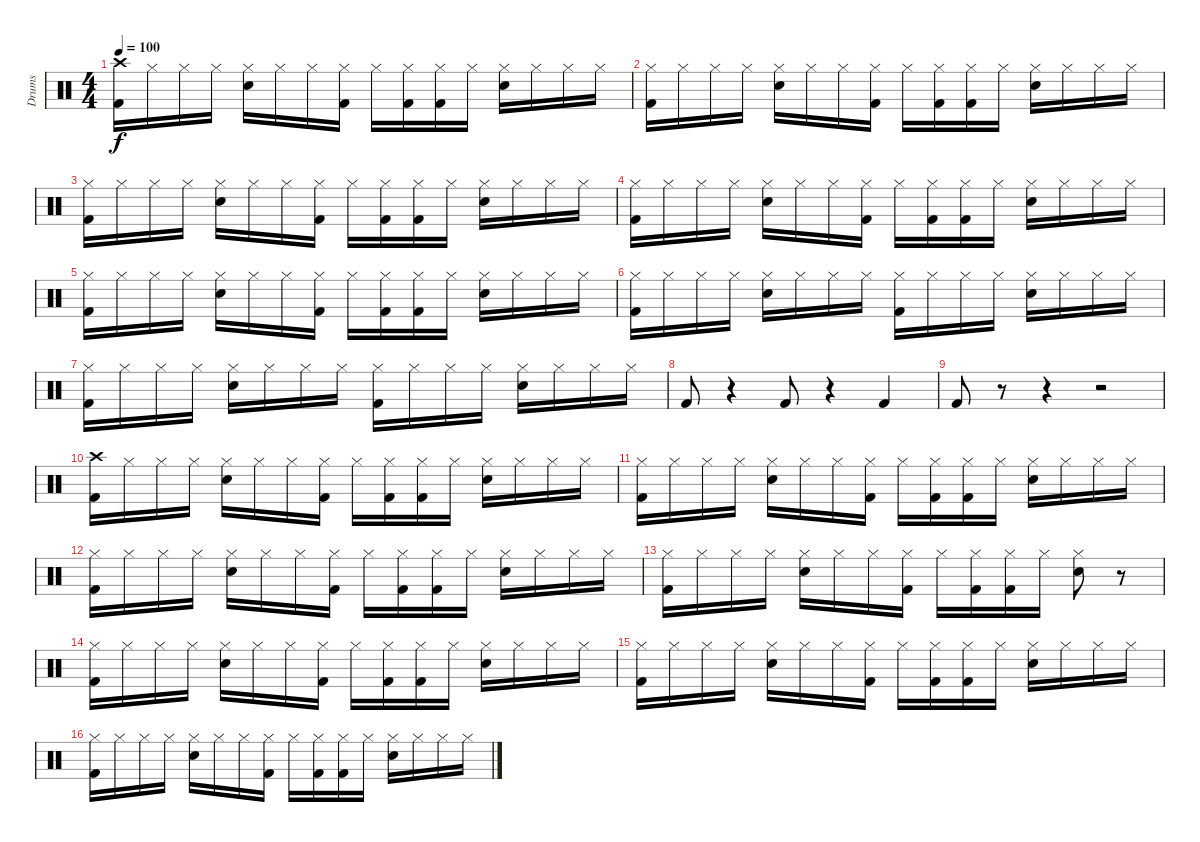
\track ("Drums" "Drums") {instrument percussion}
\staff {score}
\articulation defaults
\ts (4 4)
\tempo 100
\clef neutral
\ks c
("Crash high (hit)" "Kick (hit) 2").16{dy f} "Hi-Hat (closed)".16 "Hi-Hat (closed)".16 "Hi-Hat (closed)".16 ("Hi-Hat (closed)" "Electric Snare (hit)").16 "Hi-Hat (closed)".16 "Hi-Hat (closed)".16 ("Hi-Hat (closed)" "Kick (hit) 2").16 "Hi-Hat (closed)".16 ("Hi-Hat (closed)" "Kick (hit) 2").16 ("Hi-Hat (closed)" "Kick (hit) 2").16 "Hi-Hat (closed)".16 ("Hi-Hat (closed)" "Electric Snare (hit)").16 "Hi-Hat (closed)".16 "Hi-Hat (closed)".16 "Hi-Hat (closed)".16 |
("Hi-Hat (closed)" "Kick (hit) 2").16 "Hi-Hat (closed)".16 "Hi-Hat (closed)".16 "Hi-Hat (closed)".16 ("Hi-Hat (closed)" "Electric Snare (hit)").16 "Hi-Hat (closed)".16 "Hi-Hat (closed)".16 ("Hi-Hat (closed)" "Kick (hit) 2").16 "Hi-Hat (closed)".16 ("Hi-Hat (closed)" "Kick (hit) 2").16 ("Hi-Hat (closed)" "Kick (hit) 2").16 "Hi-Hat (closed)".16 ("Hi-Hat (closed)" "Electric Snare (hit)").16 "Hi-Hat (closed)".16 "Hi-Hat (closed)".16 "Hi-Hat (closed)".16 |
("Hi-Hat (closed)" "Kick (hit) 2").16 "Hi-Hat (closed)".16 "Hi-Hat (closed)".16 "Hi-Hat (closed)".16 ("Hi-Hat (closed)" "Electric Snare (hit)").16 "Hi-Hat (closed)".16 "Hi-Hat (closed)".16 ("Hi-Hat (closed)" "Kick (hit) 2").16 "Hi-Hat (closed)".16 ("Hi-Hat (closed)" "Kick (hit) 2").16 ("Hi-Hat (closed)" "Kick (hit) 2").16 "Hi-Hat (closed)".16 ("Hi-Hat (closed)" "Electric Snare (hit)").16 "Hi-Hat (closed)".16 "Hi-Hat (closed)".16 "Hi-Hat (closed)".16 |
("Hi-Hat (closed)" "Kick (hit) 2").16 "Hi-Hat (closed)".16 "Hi-Hat (closed)".16 "Hi-Hat (closed)".16 ("Hi-Hat (closed)" "Electric Snare (hit)").16 "Hi-Hat (closed)".16 "Hi-Hat (closed)".16 ("Hi-Hat (closed)" "Kick (hit) 2").16 "Hi-Hat (closed)".16 ("Hi-Hat (closed)" "Kick (hit) 2").16 ("Hi-Hat (closed)" "Kick (hit) 2").16 "Hi-Hat (closed)".16 ("Hi-Hat (closed)" "Electric Snare (hit)").16 "Hi-Hat (closed)".16 "Hi-Hat (closed)".16 "Hi-Hat (closed)".16 |
("Hi-Hat (closed)" "Kick (hit) 2").16 "Hi-Hat (closed)".16 "Hi-Hat (closed)".16 "Hi-Hat (closed)".16 ("Hi-Hat (closed)" "Electric Snare (hit)").16 "Hi-Hat (closed)".16 "Hi-Hat (closed)".16 ("Hi-Hat (closed)" "Kick (hit) 2").16 "Hi-Hat (closed)".16 ("Hi-Hat (closed)" "Kick (hit) 2").16 ("Hi-Hat (closed)" "Kick (hit) 2").16 "Hi-Hat (closed)".16 ("Hi-Hat (closed)" "Electric Snare (hit)").16 "Hi-Hat (closed)".16 "Hi-Hat (closed)".16 "Hi-Hat (closed)".16 |
("Hi-Hat (closed)" "Kick (hit) 2").16 "Hi-Hat (closed)".16 "Hi-Hat (closed)".16 "Hi-Hat (closed)".16 ("Hi-Hat (closed)" "Electric Snare (hit)").16 "Hi-Hat (closed)".16 "Hi-Hat (closed)".16 "Hi-Hat (closed)".16 ("Kick (hit) 2" "Hi-Hat (closed)").16 "Hi-Hat (closed)".16 "Hi-Hat (closed)".16 "Hi-Hat (closed)".16 ("Hi-Hat (closed)" "Electric Snare (hit)").16 "Hi-Hat (closed)".16 "Hi-Hat (closed)".16 "Hi-Hat (closed)".16 |
("Hi-Hat (closed)" "Kick (hit) 2").16 "Hi-Hat (closed)".16 "Hi-Hat (closed)".16 "Hi-Hat (closed)".16 ("Hi-Hat (closed)" "Electric Snare (hit)").16 "Hi-Hat (closed)".16 "Hi-Hat (closed)".16 "Hi-Hat (closed)".16 ("Kick (hit) 2" "Hi-Hat (closed)").16 "Hi-Hat (closed)".16 "Hi-Hat (closed)".16 "Hi-Hat (closed)".16 ("Hi-Hat (closed)" "Electric Snare (hit)").16 "Hi-Hat (closed)".16 "Hi-Hat (closed)".16 "Hi-Hat (closed)".16 |
"Kick (hit) 2".8 r.4 "Kick (hit) 2".8 r.4 "Kick (hit) 2".4 |
"Kick (hit) 2".8 r.8 r.4 r.2 |
("Crash high (hit)" "Kick (hit) 2").16 "Hi-Hat (closed)".16 "Hi-Hat (closed)".16 "Hi-Hat (closed)".16 ("Hi-Hat (closed)" "Electric Snare (hit)").16 "Hi-Hat (closed)".16 "Hi-Hat (closed)".16 ("Hi-Hat (closed)" "Kick (hit) 2").16 "Hi-Hat (closed)".16 ("Hi-Hat (closed)" "Kick (hit) 2").16 ("Hi-Hat (closed)" "Kick (hit) 2").16 "Hi-Hat (closed)".16 ("Hi-Hat (closed)" "Electric Snare (hit)").16 "Hi-Hat (closed)".16 "Hi-Hat (closed)".16 "Hi-Hat (closed)".16 |
("Hi-Hat (closed)" "Kick (hit) 2").16 "Hi-Hat (closed)".16 "Hi-Hat (closed)".16 "Hi-Hat (closed)".16 ("Hi-Hat (closed)" "Electric Snare (hit)").16 "Hi-Hat (closed)".16 "Hi-Hat (closed)".16 ("Hi-Hat (closed)" "Kick (hit) 2").16 "Hi-Hat (closed)".16 ("Hi-Hat (closed)" "Kick (hit) 2").16 ("Hi-Hat (closed)" "Kick (hit) 2").16 "Hi-Hat (closed)".16 ("Hi-Hat (closed)" "Electric Snare (hit)").16 "Hi-Hat (closed)".16 "Hi-Hat (closed)".16 "Hi-Hat (closed)".16 |
("Hi-Hat (closed)" "Kick (hit) 2").16 "Hi-Hat (closed)".16 "Hi-Hat (closed)".16 "Hi-Hat (closed)".16 ("Hi-Hat (closed)" "Electric Snare (hit)").16 "Hi-Hat (closed)".16 "Hi-Hat (closed)".16 ("Hi-Hat (closed)" "Kick (hit) 2").16 "Hi-Hat (closed)".16 ("Hi-Hat (closed)" "Kick (hit) 2").16 ("Hi-Hat (closed)" "Kick (hit) 2").16 "Hi-Hat (closed)".16 ("Hi-Hat (closed)" "Electric Snare (hit)").16 "Hi-Hat (closed)".16 "Hi-Hat (closed)".16 "Hi-Hat (closed)".16 |
("Hi-Hat (closed)" "Kick (hit) 2").16 "Hi-Hat (closed)".16 "Hi-Hat (closed)".16 "Hi-Hat (closed)".16 ("Hi-Hat (closed)" "Electric Snare (hit)").16 "Hi-Hat (closed)".16 "Hi-Hat (closed)".16 ("Hi-Hat (closed)" "Kick (hit) 2").16 "Hi-Hat (closed)".16 ("Hi-Hat (closed)" "Kick (hit) 2").16 ("Hi-Hat (closed)" "Kick (hit) 2").16 "Hi-Hat (closed)".16 ("Hi-Hat (closed)" "Electric Snare (hit)").8 r.8 |
("Hi-Hat (closed)" "Kick (hit) 2").16 "Hi-Hat (closed)".16 "Hi-Hat (closed)".16 "Hi-Hat (closed)".16 ("Hi-Hat (closed)" "Electric Snare (hit)").16 "Hi-Hat (closed)".16 "Hi-Hat (closed)".16 ("Hi-Hat (closed)" "Kick (hit) 2").16 "Hi-Hat (closed)".16 ("Hi-Hat (closed)" "Kick (hit) 2").16 ("Hi-Hat (closed)" "Kick (hit) 2").16 "Hi-Hat (closed)".16 ("Hi-Hat (closed)" "Electric Snare (hit)").16 "Hi-Hat (closed)".16 "Hi-Hat (closed)".16 "Hi-Hat (closed)".16 |
("Hi-Hat (closed)" "Kick (hit) 2").16 "Hi-Hat (closed)".16 "Hi-Hat (closed)".16 "Hi-Hat (closed)".16 ("Hi-Hat (closed)" "Electric Snare (hit)").16 "Hi-Hat (closed)".16 "Hi-Hat (closed)".16 ("Hi-Hat (closed)" "Kick (hit) 2").16 "Hi-Hat (closed)".16 ("Hi-Hat (closed)" "Kick (hit) 2").16 ("Hi-Hat (closed)" "Kick (hit) 2").16 "Hi-Hat (closed)".16 ("Hi-Hat (closed)" "Electric Snare (hit)").16 "Hi-Hat (closed)".16 "Hi-Hat (closed)".16 "Hi-Hat (closed)".16 |
("Hi-Hat (closed)" "Kick (hit) 2").16 "Hi-Hat (closed)".16 "Hi-Hat (closed)".16 "Hi-Hat (closed)".16 ("Hi-Hat (closed)" "Electric Snare (hit)").16 "Hi-Hat (closed)".16 "Hi-Hat (closed)".16 ("Hi-Hat (closed)" "Kick (hit) 2").16 "Hi-Hat (closed)".16 ("Hi-Hat (closed)" "Kick (hit) 2").16 ("Hi-Hat (closed)" "Kick (hit) 2").16 "Hi-Hat (closed)".16 ("Hi-Hat (closed)" "Electric Snare (hit)").16 "Hi-Hat (closed)".16 "Hi-Hat (closed)".16 "Hi-Hat (closed)".16
